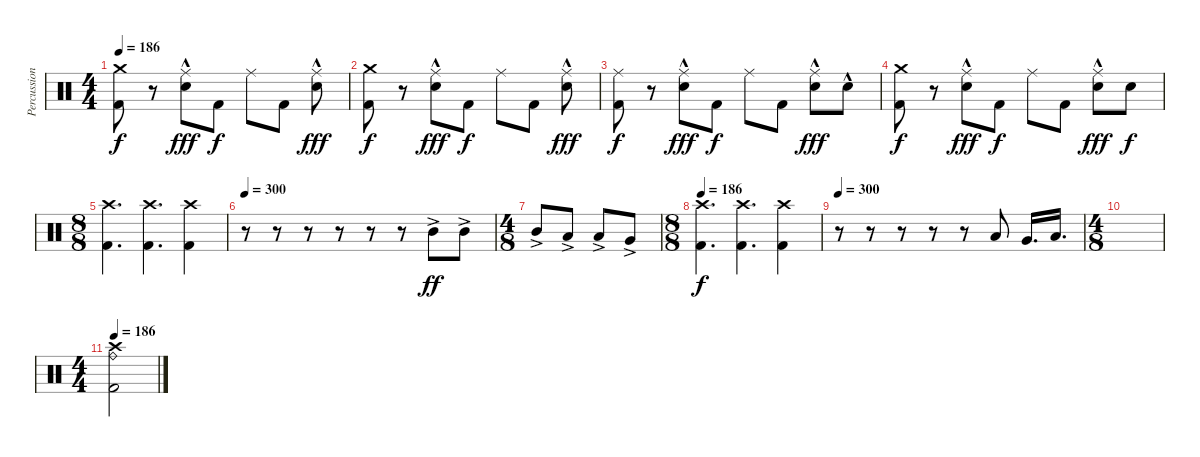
\track ("Percussion" "Percussion") {instrument percussion}
\staff {score}
\articulation defaults
\ts (4 4)
\tempo 186
\clef neutral
\ks c
("Kick (hit) 2" "Crash medium (hit)").8{dy f} r.8 ("Electric Snare (hit)"{hac} "Ride (middle)").8{dy fff} "Kick (hit) 2".8{dy f} "Ride (middle)".8 "Kick (hit) 2".8 ("Electric Snare (hit)"{hac} "Ride (middle)").8{dy fff} |
("Kick (hit) 2" "Crash medium (hit)").8{dy f} r.8 ("Electric Snare (hit)"{hac} "Ride (middle)").8{dy fff} "Kick (hit) 2".8{dy f} "Ride (middle)".8 "Kick (hit) 2".8 ("Electric Snare (hit)"{hac} "Ride (middle)").8{dy fff} |
("Kick (hit) 2" "Ride (middle)").8{dy f} r.8 ("Electric Snare (hit)"{hac} "Ride (middle)").8{dy fff} "Kick (hit) 2".8{dy f} "Ride (middle)".8 "Kick (hit) 2".8 ("Electric Snare (hit)"{hac} "Ride (middle)").8{dy fff} "Electric Snare (hit)"{hac}.8 |
("Kick (hit) 2" "Crash medium (hit)").8{dy f} r.8 ("Electric Snare (hit)"{hac} "Ride (middle)").8{dy fff} "Kick (hit) 2".8{dy f} "Ride (middle)".8 "Kick (hit) 2".8 ("Electric Snare (hit)"{hac} "Ride (middle)").8{dy fff} "Electric Snare (hit)".8{dy f} |
\ts (8 8)
("Kick (hit) 2" "Crash high (hit)").4{d} ("Kick (hit) 2" "Crash high (hit)").4{d} ("Kick (hit) 2" "Crash high (hit)").4 |
\tempo 300
r.8 r.8 r.8 r.8 r.8 r.8 "Mid Tom (hit)"{ac}.8{dy ff} "Mid Tom (hit)"{ac}.8 |
\ts (4 8)
"Mid Tom (hit)"{ac}.8 "Low Tom (hit)"{ac}.8 "Low Tom (hit)"{ac}.8 "Very Low Tom (hit)"{ac}.8 |
\ts (8 8)
\tempo 186
("Kick (hit) 2" "Crash high (hit)").4{d dy f} ("Kick (hit) 2" "Crash high (hit)").4{d} ("Kick (hit) 2" "Crash high (hit)").4 |
\tempo 300
r.8 r.8 r.8 r.8 r.8 "Low Tom (hit)".8 "Very Low Tom (hit)".16{d} "Low Floor Tom (hit)".16{d} |
\ts (4 8)
|
\ts (4 4)
\tempo 186
("Ride (bell)" "Crash high (hit)" "Kick (hit) 2").2
